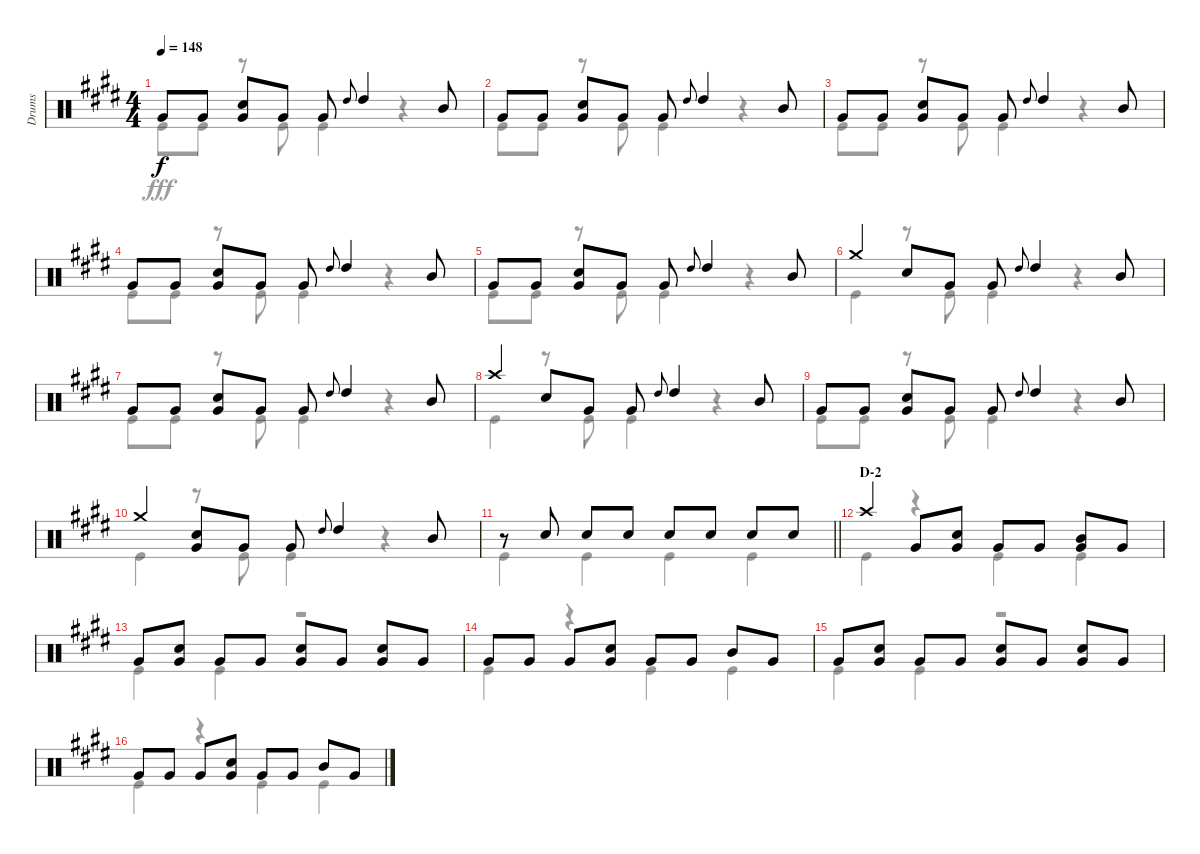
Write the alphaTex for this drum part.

\track ("Drums" "Drums") {instrument percussion}
\staff {score}
\articulation defaults
\voice
\ts (4 4)
\tempo 148
\clef neutral
\ks e "Very Low Tom (hit)".8{dy f} "Very Low Tom (hit)".8
("Snare (hit) 2" "Very Low Tom (hit)").8 "Very Low Tom (hit)".8 "Very Low Tom (hit)".8 "High Tom (hit)".8{gr onbeat} "High Tom (hit)".4 "Mid Tom (hit)".8 |
"Very Low Tom (hit)".8 "Very Low Tom (hit)".8 ("Snare (hit) 2" "Very Low Tom (hit)").8 "Very Low Tom (hit)".8 "Very Low Tom (hit)".8 "High Tom (hit)".8{gr onbeat} "High Tom (hit)".4 "Mid Tom (hit)".8 |
"Very Low Tom (hit)".8 "Very Low Tom (hit)".8 ("Snare (hit) 2" "Very Low Tom (hit)").8 "Very Low Tom (hit)".8 "Very Low Tom (hit)".8 "High Tom (hit)".8{gr onbeat} "High Tom (hit)".4 "Mid Tom (hit)".8 |
"Very Low Tom (hit)".8 "Very Low Tom (hit)".8 ("Snare (hit) 2" "Very Low Tom (hit)").8 "Very Low Tom (hit)".8 "Very Low Tom (hit)".8 "High Tom (hit)".8{gr onbeat} "High Tom (hit)".4 "Mid Tom (hit)".8 |
"Very Low Tom (hit)".8 "Very Low Tom (hit)".8 ("Snare (hit) 2" "Very Low Tom (hit)").8 "Very Low Tom (hit)".8 "Very Low Tom (hit)".8 "High Tom (hit)".8{gr onbeat} "High Tom (hit)".4 "Mid Tom (hit)".8 |
"Crash medium (hit)".4 "Snare (hit) 2".8 "Very Low Tom (hit)".8 "Very Low Tom (hit)".8 "High Tom (hit)".8{gr onbeat} "High Tom (hit)".4 "Mid Tom (hit)".8 |
"Very Low Tom (hit)".8 "Very Low Tom (hit)".8 ("Snare (hit) 2" "Very Low Tom (hit)").8 "Very Low Tom (hit)".8 "Very Low Tom (hit)".8 "High Tom (hit)".8{gr onbeat} "High Tom (hit)".4 "Mid Tom (hit)".8 |
"Crash high (hit)".4 "Snare (hit) 2".8 "Very Low Tom (hit)".8 "Very Low Tom (hit)".8 "High Tom (hit)".8{gr onbeat} "High Tom (hit)".4 "Mid Tom (hit)".8 |
"Very Low Tom (hit)".8 "Very Low Tom (hit)".8 ("Snare (hit) 2" "Very Low Tom (hit)").8 "Very Low Tom (hit)".8 "Very Low Tom (hit)".8 "High Tom (hit)".8{gr onbeat} "High Tom (hit)".4 "Mid Tom (hit)".8 |
"Crash medium (hit)".4 ("Snare (hit) 2" "Very Low Tom (hit)").8 "Very Low Tom (hit)".8 "Very Low Tom (hit)".8 "High Tom (hit)".8{gr onbeat} "High Tom (hit)".4 "Mid Tom (hit)".8 |
\barLineRight lightlight
r.8 "Snare (hit) 2".8 "Snare (hit) 2".8 "Snare (hit) 2".8 "Snare (hit) 2".8 "Snare (hit) 2".8 "Snare (hit) 2".8 "Snare (hit) 2".8 |
\section ("" "D-2")
"Crash high (hit)".4 "Very Low Tom (hit)".8 ("Snare (hit) 2" "Very Low Tom (hit)").8 "Very Low Tom (hit)".8 "Very Low Tom (hit)".8 ("Mid Tom (hit)" "Very Low Tom (hit)").8 "Very Low Tom (hit)".8 |
"Very Low Tom (hit)".8 ("Snare (hit) 2" "Very Low Tom (hit)").8 "Very Low Tom (hit)".8 "Very Low Tom (hit)".8 ("Snare (hit) 2" "Very Low Tom (hit)").8 "Very Low Tom (hit)".8 ("Snare (hit) 2" "Very Low Tom (hit)").8 "Very Low Tom (hit)".8 |
"Very Low Tom (hit)".8 "Very Low Tom (hit)".8 "Very Low Tom (hit)".8 ("Snare (hit) 2" "Very Low Tom (hit)").8 "Very Low Tom (hit)".8 "Very Low Tom (hit)".8 "Mid Tom (hit)".8 "Very Low Tom (hit)".8 |
"Very Low Tom (hit)".8 ("Snare (hit) 2" "Very Low Tom (hit)").8 "Very Low Tom (hit)".8 "Very Low Tom (hit)".8 ("Snare (hit) 2" "Very Low Tom (hit)").8 "Very Low Tom (hit)".8 ("Snare (hit) 2" "Very Low Tom (hit)").8 "Very Low Tom (hit)".8 |
"Very Low Tom (hit)".8 "Very Low Tom (hit)".8 "Very Low Tom (hit)".8 ("Snare (hit) 2" "Very Low Tom (hit)").8 "Very Low Tom (hit)".8 "Very Low Tom (hit)".8 "Mid Tom (hit)".8 "Very Low Tom (hit)".8
\voice
\clef neutral
\ottava regular
\simile none
\ks e "Kick (hit)".8{dy fff} "Kick (hit)".8
r.8 "Kick (hit)".8 "Kick (hit)".4 r.4 |
"Kick (hit)".8 "Kick (hit)".8 r.8 "Kick (hit)".8 "Kick (hit)".4 r.4 |
"Kick (hit)".8 "Kick (hit)".8 r.8 "Kick (hit)".8 "Kick (hit)".4 r.4 |
"Kick (hit)".8 "Kick (hit)".8 r.8 "Kick (hit)".8 "Kick (hit)".4 r.4 |
"Kick (hit)".8 "Kick (hit)".8 r.8 "Kick (hit)".8 "Kick (hit)".4 r.4 |
"Kick (hit)".4 r.8 "Kick (hit)".8 "Kick (hit)".4 r.4 |
"Kick (hit)".8 "Kick (hit)".8 r.8 "Kick (hit)".8 "Kick (hit)".4 r.4 |
"Kick (hit)".4 r.8 "Kick (hit)".8 "Kick (hit)".4 r.4 |
"Kick (hit)".8 "Kick (hit)".8 r.8 "Kick (hit)".8 "Kick (hit)".4 r.4 |
"Kick (hit)".4 r.8 "Kick (hit)".8 "Kick (hit)".4 r.4 |
\barLineRight lightlight "Kick (hit)".4 "Kick (hit)".4 "Kick (hit)".4 "Kick (hit)".4
|
"Kick (hit)".4 r.4 "Kick (hit)".4 "Kick (hit)".4 |
"Kick (hit)".4 "Kick (hit)".4 r.2 |
"Kick (hit)".4 r.4 "Kick (hit)".4 "Kick (hit)".4 |
"Kick (hit)".4 "Kick (hit)".4 r.2 |
"Kick (hit)".4 r.4 "Kick (hit)".4 "Kick (hit)".4
